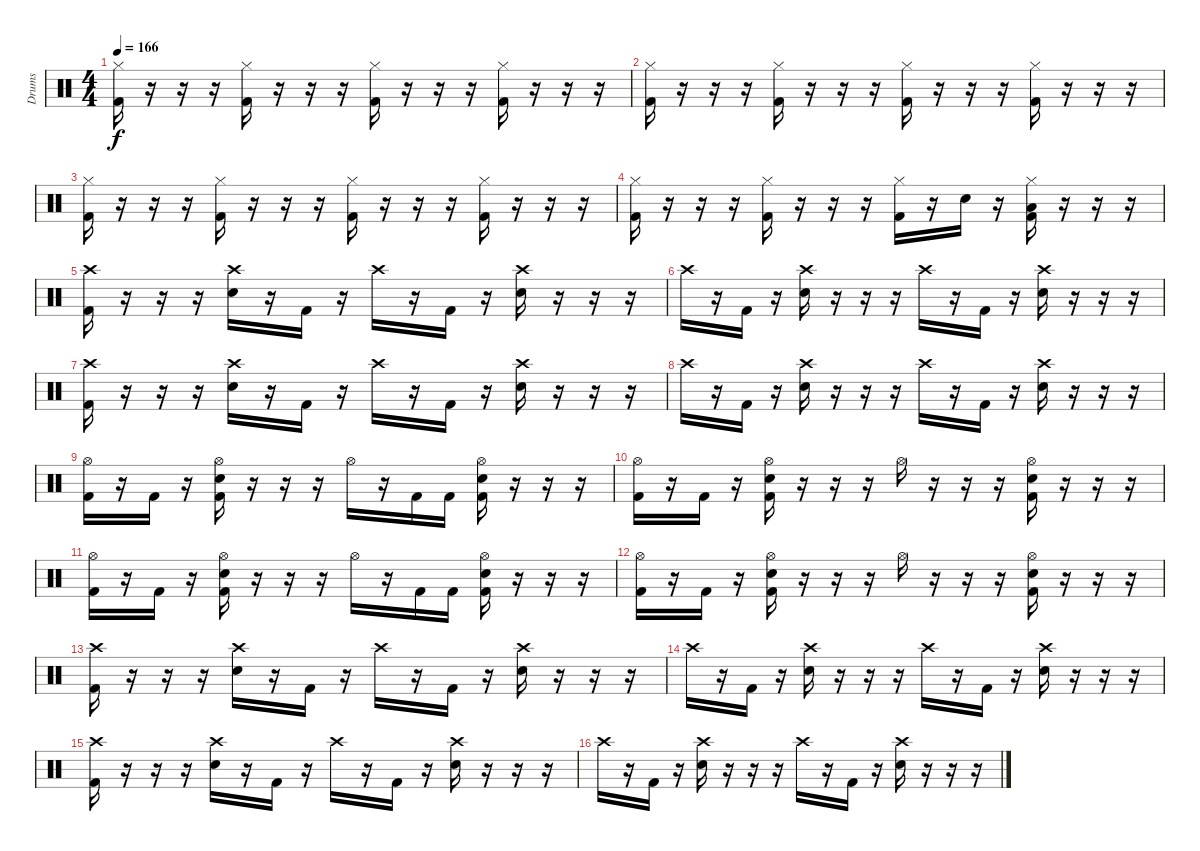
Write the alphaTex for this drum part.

\track ("Drums" "Drums") {instrument percussion}
\staff {score}
\articulation defaults
\ts (4 4)
\tempo 166
\clef neutral
\ks c
("Hi-Hat (closed)" "Kick (hit) 2").16{dy f} r.16 r.16 r.16 ("Hi-Hat (closed)" "Kick (hit) 2").16 r.16 r.16 r.16 ("Hi-Hat (closed)" "Kick (hit) 2").16 r.16 r.16 r.16 ("Hi-Hat (closed)" "Kick (hit) 2").16 r.16 r.16 r.16 |
("Hi-Hat (closed)" "Kick (hit) 2").16 r.16 r.16 r.16 ("Hi-Hat (closed)" "Kick (hit) 2").16 r.16 r.16 r.16 ("Hi-Hat (closed)" "Kick (hit) 2").16 r.16 r.16 r.16 ("Hi-Hat (closed)" "Kick (hit) 2").16 r.16 r.16 r.16 |
("Hi-Hat (closed)" "Kick (hit) 2").16 r.16 r.16 r.16 ("Hi-Hat (closed)" "Kick (hit) 2").16 r.16 r.16 r.16 ("Hi-Hat (closed)" "Kick (hit) 2").16 r.16 r.16 r.16 ("Hi-Hat (closed)" "Kick (hit) 2").16 r.16 r.16 r.16 |
("Hi-Hat (closed)" "Kick (hit) 2").16 r.16 r.16 r.16 ("Hi-Hat (closed)" "Kick (hit) 2").16 r.16 r.16 r.16 ("Hi-Hat (closed)" "Kick (hit) 2").16 r.16 "Electric Snare (hit)".16 r.16 ("Hi-Hat (closed)" "Low Floor Tom (hit)" "Kick (hit) 2").16 r.16 r.16 r.16 |
("Crash high (hit)" "Kick (hit) 2").16 r.16 r.16 r.16 ("Crash high (hit)" "Electric Snare (hit)").16 r.16 "Kick (hit) 2".16 r.16 "Crash high (hit)".16 r.16 "Kick (hit) 2".16 r.16 ("Crash high (hit)" "Electric Snare (hit)").16 r.16 r.16 r.16 |
"Crash high (hit)".16 r.16 "Kick (hit) 2".16 r.16 ("Crash high (hit)" "Electric Snare (hit)").16 r.16 r.16 r.16 "Crash high (hit)".16 r.16 "Kick (hit) 2".16 r.16 ("Crash high (hit)" "Electric Snare (hit)").16 r.16 r.16 r.16 |
("Crash high (hit)" "Kick (hit) 2").16 r.16 r.16 r.16 ("Crash high (hit)" "Electric Snare (hit)").16 r.16 "Kick (hit) 2".16 r.16 "Crash high (hit)".16 r.16 "Kick (hit) 2".16 r.16 ("Crash high (hit)" "Electric Snare (hit)").16 r.16 r.16 r.16 |
"Crash high (hit)".16 r.16 "Kick (hit) 2".16 r.16 ("Crash high (hit)" "Electric Snare (hit)").16 r.16 r.16 r.16 "Crash high (hit)".16 r.16 "Kick (hit) 2".16 r.16 ("Crash high (hit)" "Electric Snare (hit)").16 r.16 r.16 r.16 |
("Hi-Hat (open)" "Kick (hit) 2").16 r.16 "Kick (hit) 2".16 r.16 ("Hi-Hat (open)" "Electric Snare (hit)" "Kick (hit) 2").16 r.16 r.16 r.16 "Hi-Hat (open)".16 r.16 "Kick (hit) 2".16 "Kick (hit) 2".16 ("Hi-Hat (open)" "Electric Snare (hit)" "Kick (hit) 2").16 r.16 r.16 r.16 |
("Hi-Hat (open)" "Kick (hit) 2").16 r.16 "Kick (hit) 2".16 r.16 ("Hi-Hat (open)" "Electric Snare (hit)" "Kick (hit) 2").16 r.16 r.16 r.16 "Hi-Hat (open)".16 r.16 r.16 r.16 ("Hi-Hat (open)" "Electric Snare (hit)" "Kick (hit) 2").16 r.16 r.16 r.16 |
("Hi-Hat (open)" "Kick (hit) 2").16 r.16 "Kick (hit) 2".16 r.16 ("Hi-Hat (open)" "Electric Snare (hit)" "Kick (hit) 2").16 r.16 r.16 r.16 "Hi-Hat (open)".16 r.16 "Kick (hit) 2".16 "Kick (hit) 2".16 ("Hi-Hat (open)" "Electric Snare (hit)" "Kick (hit) 2").16 r.16 r.16 r.16 |
("Hi-Hat (open)" "Kick (hit) 2").16 r.16 "Kick (hit) 2".16 r.16 ("Hi-Hat (open)" "Electric Snare (hit)" "Kick (hit) 2").16 r.16 r.16 r.16 "Hi-Hat (open)".16 r.16 r.16 r.16 ("Hi-Hat (open)" "Electric Snare (hit)" "Kick (hit) 2").16 r.16 r.16 r.16 |
("Crash high (hit)" "Kick (hit) 2").16 r.16 r.16 r.16 ("Crash high (hit)" "Electric Snare (hit)").16 r.16 "Kick (hit) 2".16 r.16 "Crash high (hit)".16 r.16 "Kick (hit) 2".16 r.16 ("Crash high (hit)" "Electric Snare (hit)").16 r.16 r.16 r.16 |
"Crash high (hit)".16 r.16 "Kick (hit) 2".16 r.16 ("Crash high (hit)" "Electric Snare (hit)").16 r.16 r.16 r.16 "Crash high (hit)".16 r.16 "Kick (hit) 2".16 r.16 ("Crash high (hit)" "Electric Snare (hit)").16 r.16 r.16 r.16 |
("Crash high (hit)" "Kick (hit) 2").16 r.16 r.16 r.16 ("Crash high (hit)" "Electric Snare (hit)").16 r.16 "Kick (hit) 2".16 r.16 "Crash high (hit)".16 r.16 "Kick (hit) 2".16 r.16 ("Crash high (hit)" "Electric Snare (hit)").16 r.16 r.16 r.16 |
"Crash high (hit)".16 r.16 "Kick (hit) 2".16 r.16 ("Crash high (hit)" "Electric Snare (hit)").16 r.16 r.16 r.16 "Crash high (hit)".16 r.16 "Kick (hit) 2".16 r.16 ("Crash high (hit)" "Electric Snare (hit)").16 r.16 r.16 r.16
